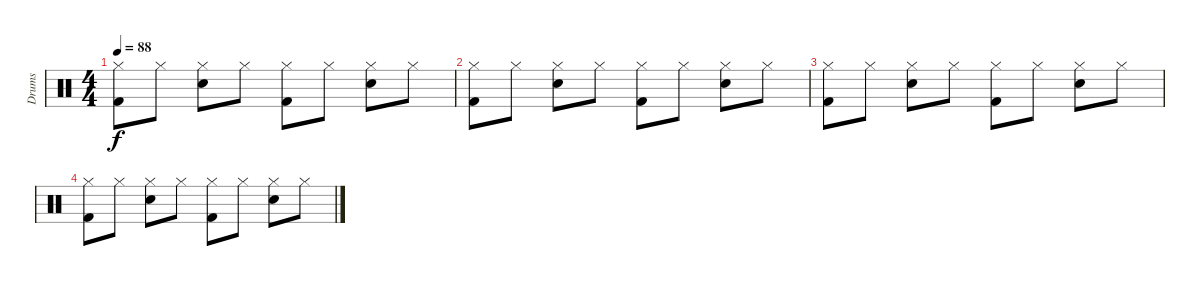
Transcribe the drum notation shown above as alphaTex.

\track ("Drums" "Drums") {instrument percussion}
\staff {score}
\articulation defaults
\ts (4 4)
\tempo 88
\clef neutral
\ks c
("Kick (hit) 2" "Hi-Hat (closed)").8{dy f} "Hi-Hat (closed)".8 ("Snare (hit) 2" "Hi-Hat (closed)").8 "Hi-Hat (closed)".8 ("Kick (hit) 2" "Hi-Hat (closed)").8 "Hi-Hat (closed)".8 ("Snare (hit) 2" "Hi-Hat (closed)").8 "Hi-Hat (closed)".8 |
("Kick (hit) 2" "Hi-Hat (closed)").8 "Hi-Hat (closed)".8 ("Snare (hit) 2" "Hi-Hat (closed)").8 "Hi-Hat (closed)".8 ("Kick (hit) 2" "Hi-Hat (closed)").8 "Hi-Hat (closed)".8 ("Snare (hit) 2" "Hi-Hat (closed)").8 "Hi-Hat (closed)".8 |
("Kick (hit) 2" "Hi-Hat (closed)").8 "Hi-Hat (closed)".8 ("Snare (hit) 2" "Hi-Hat (closed)").8 "Hi-Hat (closed)".8 ("Kick (hit) 2" "Hi-Hat (closed)").8 "Hi-Hat (closed)".8 ("Snare (hit) 2" "Hi-Hat (closed)").8 "Hi-Hat (closed)".8 |
("Kick (hit) 2" "Hi-Hat (closed)").8 "Hi-Hat (closed)".8 ("Snare (hit) 2" "Hi-Hat (closed)").8 "Hi-Hat (closed)".8 ("Kick (hit) 2" "Hi-Hat (closed)").8 "Hi-Hat (closed)".8 ("Snare (hit) 2" "Hi-Hat (closed)").8 "Hi-Hat (closed)".8
